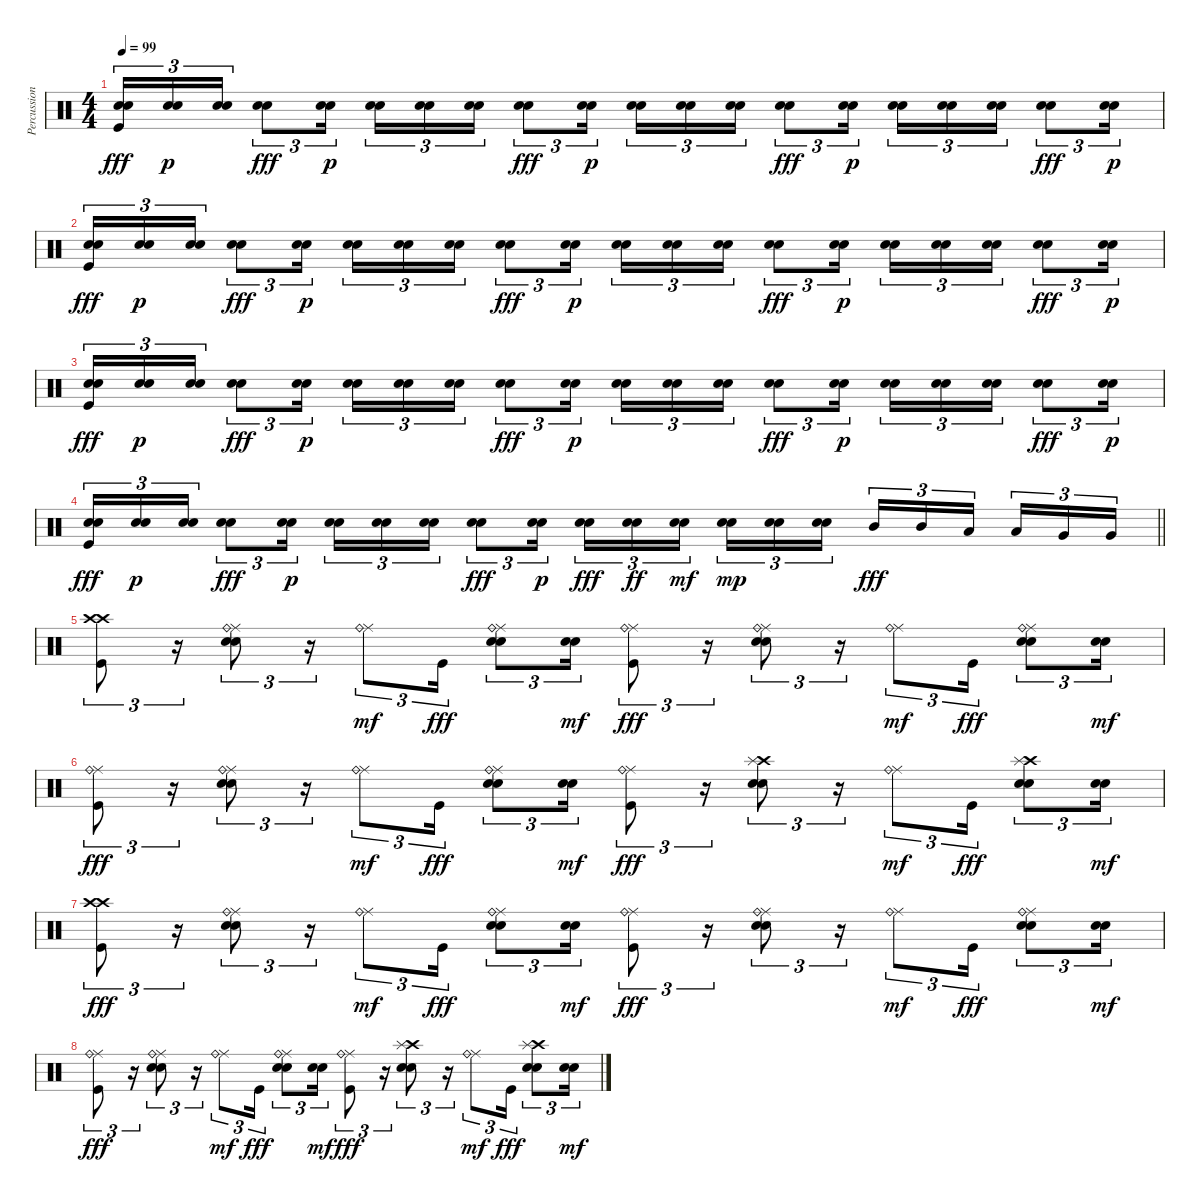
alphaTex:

\track ("Percussion" "Percussion") {instrument percussion}
\staff {score}
\articulation defaults
\ts (4 4)
\tempo 99
\clef neutral
\ks c
("Snare (hit) 2" "Electric Snare (hit)" "Kick (hit)").16{tu (3 2) dy fff} ("Snare (hit) 2" "Electric Snare (hit)").16{tu (3 2) dy p} ("Snare (hit) 2" "Electric Snare (hit)").16{tu (3 2)} ("Snare (hit) 2" "Electric Snare (hit)").8{tu (3 2) dy fff} ("Snare (hit) 2" "Electric Snare (hit)").16{tu (3 2) dy p} ("Snare (hit) 2" "Electric Snare (hit)").16{tu (3 2)} ("Snare (hit) 2" "Electric Snare (hit)").16{tu (3 2)} ("Snare (hit) 2" "Electric Snare (hit)").16{tu (3 2)} ("Snare (hit) 2" "Electric Snare (hit)").8{tu (3 2) dy fff} ("Snare (hit) 2" "Electric Snare (hit)").16{tu (3 2) dy p} ("Snare (hit) 2" "Electric Snare (hit)").16{tu (3 2)} ("Snare (hit) 2" "Electric Snare (hit)").16{tu (3 2)} ("Snare (hit) 2" "Electric Snare (hit)").16{tu (3 2)} ("Snare (hit) 2" "Electric Snare (hit)").8{tu (3 2) dy fff} ("Snare (hit) 2" "Electric Snare (hit)").16{tu (3 2) dy p} ("Snare (hit) 2" "Electric Snare (hit)").16{tu (3 2)} ("Snare (hit) 2" "Electric Snare (hit)").16{tu (3 2)} ("Snare (hit) 2" "Electric Snare (hit)").16{tu (3 2)} ("Snare (hit) 2" "Electric Snare (hit)").8{tu (3 2) dy fff} ("Snare (hit) 2" "Electric Snare (hit)").16{tu (3 2) dy p} |
("Snare (hit) 2" "Electric Snare (hit)" "Kick (hit)").16{tu (3 2) dy fff} ("Snare (hit) 2" "Electric Snare (hit)").16{tu (3 2) dy p} ("Snare (hit) 2" "Electric Snare (hit)").16{tu (3 2)} ("Snare (hit) 2" "Electric Snare (hit)").8{tu (3 2) dy fff} ("Snare (hit) 2" "Electric Snare (hit)").16{tu (3 2) dy p} ("Snare (hit) 2" "Electric Snare (hit)").16{tu (3 2)} ("Snare (hit) 2" "Electric Snare (hit)").16{tu (3 2)} ("Snare (hit) 2" "Electric Snare (hit)").16{tu (3 2)} ("Snare (hit) 2" "Electric Snare (hit)").8{tu (3 2) dy fff} ("Snare (hit) 2" "Electric Snare (hit)").16{tu (3 2) dy p} ("Snare (hit) 2" "Electric Snare (hit)").16{tu (3 2)} ("Snare (hit) 2" "Electric Snare (hit)").16{tu (3 2)} ("Snare (hit) 2" "Electric Snare (hit)").16{tu (3 2)} ("Snare (hit) 2" "Electric Snare (hit)").8{tu (3 2) dy fff} ("Snare (hit) 2" "Electric Snare (hit)").16{tu (3 2) dy p} ("Snare (hit) 2" "Electric Snare (hit)").16{tu (3 2)} ("Snare (hit) 2" "Electric Snare (hit)").16{tu (3 2)} ("Snare (hit) 2" "Electric Snare (hit)").16{tu (3 2)} ("Snare (hit) 2" "Electric Snare (hit)").8{tu (3 2) dy fff} ("Snare (hit) 2" "Electric Snare (hit)").16{tu (3 2) dy p} |
("Snare (hit) 2" "Electric Snare (hit)" "Kick (hit)").16{tu (3 2) dy fff} ("Snare (hit) 2" "Electric Snare (hit)").16{tu (3 2) dy p} ("Snare (hit) 2" "Electric Snare (hit)").16{tu (3 2)} ("Snare (hit) 2" "Electric Snare (hit)").8{tu (3 2) dy fff} ("Snare (hit) 2" "Electric Snare (hit)").16{tu (3 2) dy p} ("Snare (hit) 2" "Electric Snare (hit)").16{tu (3 2)} ("Snare (hit) 2" "Electric Snare (hit)").16{tu (3 2)} ("Snare (hit) 2" "Electric Snare (hit)").16{tu (3 2)} ("Snare (hit) 2" "Electric Snare (hit)").8{tu (3 2) dy fff} ("Snare (hit) 2" "Electric Snare (hit)").16{tu (3 2) dy p} ("Snare (hit) 2" "Electric Snare (hit)").16{tu (3 2)} ("Snare (hit) 2" "Electric Snare (hit)").16{tu (3 2)} ("Snare (hit) 2" "Electric Snare (hit)").16{tu (3 2)} ("Snare (hit) 2" "Electric Snare (hit)").8{tu (3 2) dy fff} ("Snare (hit) 2" "Electric Snare (hit)").16{tu (3 2) dy p} ("Snare (hit) 2" "Electric Snare (hit)").16{tu (3 2)} ("Snare (hit) 2" "Electric Snare (hit)").16{tu (3 2)} ("Snare (hit) 2" "Electric Snare (hit)").16{tu (3 2)} ("Snare (hit) 2" "Electric Snare (hit)").8{tu (3 2) dy fff} ("Snare (hit) 2" "Electric Snare (hit)").16{tu (3 2) dy p} |
\barLineRight lightlight
("Snare (hit) 2" "Electric Snare (hit)" "Kick (hit)").16{tu (3 2) dy fff} ("Snare (hit) 2" "Electric Snare (hit)").16{tu (3 2) dy p} ("Snare (hit) 2" "Electric Snare (hit)").16{tu (3 2)} ("Snare (hit) 2" "Electric Snare (hit)").8{tu (3 2) dy fff} ("Snare (hit) 2" "Electric Snare (hit)").16{tu (3 2) dy p} ("Snare (hit) 2" "Electric Snare (hit)").16{tu (3 2)} ("Snare (hit) 2" "Electric Snare (hit)").16{tu (3 2)} ("Snare (hit) 2" "Electric Snare (hit)").16{tu (3 2)} ("Snare (hit) 2" "Electric Snare (hit)").8{tu (3 2) dy fff} ("Snare (hit) 2" "Electric Snare (hit)").16{tu (3 2) dy p} ("Snare (hit) 2" "Electric Snare (hit)").16{tu (3 2) dy fff} ("Snare (hit) 2" "Electric Snare (hit)").16{tu (3 2) dy ff} ("Snare (hit) 2" "Electric Snare (hit)").16{tu (3 2) dy mf beam splitsecondary} ("Snare (hit) 2" "Electric Snare (hit)").16{tu (3 2) dy mp} ("Snare (hit) 2" "Electric Snare (hit)").16{tu (3 2)} ("Snare (hit) 2" "Electric Snare (hit)").16{tu (3 2)} "Mid Tom (hit)".16{tu (3 2) dy fff} "Mid Tom (hit)".16{tu (3 2)} "Low Tom (hit)".16{tu (3 2) beam splitsecondary} "Low Tom (hit)".16{tu (3 2)} "Very Low Tom (hit)".16{tu (3 2)} "Very Low Tom (hit)".16{tu (3 2)} |
("Crash high (hit)" "Crash high (hit)" "Kick (hit)").8{tu (3 2)} r.16{tu (3 2)} ("Ride (middle)" "Ride (bell)" "Snare (hit) 2" "Electric Snare (hit)").8{tu (3 2)} r.16{tu (3 2)} ("Ride (middle)" "Ride (bell)").8{tu (3 2) dy mf} "Kick (hit)".16{tu (3 2) dy fff} ("Ride (middle)" "Ride (bell)" "Snare (hit) 2" "Electric Snare (hit)").8{tu (3 2)} ("Snare (hit) 2" "Electric Snare (hit)").16{tu (3 2) dy mf} ("Ride (middle)" "Ride (bell)" "Kick (hit)").8{tu (3 2) dy fff} r.16{tu (3 2)} ("Ride (middle)" "Ride (bell)" "Snare (hit) 2" "Electric Snare (hit)").8{tu (3 2)} r.16{tu (3 2)} ("Ride (middle)" "Ride (bell)").8{tu (3 2) dy mf} "Kick (hit)".16{tu (3 2) dy fff} ("Ride (middle)" "Ride (bell)" "Snare (hit) 2" "Electric Snare (hit)").8{tu (3 2)} ("Snare (hit) 2" "Electric Snare (hit)").16{tu (3 2) dy mf} |
("Ride (middle)" "Ride (bell)" "Kick (hit)").8{tu (3 2) dy fff} r.16{tu (3 2)} ("Ride (middle)" "Ride (bell)" "Snare (hit) 2" "Electric Snare (hit)").8{tu (3 2)} r.16{tu (3 2)} ("Ride (middle)" "Ride (bell)").8{tu (3 2) dy mf} "Kick (hit)".16{tu (3 2) dy fff} ("Ride (middle)" "Ride (bell)" "Snare (hit) 2" "Electric Snare (hit)").8{tu (3 2)} ("Snare (hit) 2" "Electric Snare (hit)").16{tu (3 2) dy mf} ("Ride (middle)" "Ride (bell)" "Kick (hit)").8{tu (3 2) dy fff} r.16{tu (3 2)} ("Crash high (hit)" "Splash (hit)" "Snare (hit) 2" "Electric Snare (hit)").8{tu (3 2)} r.16{tu (3 2)} ("Ride (middle)" "Ride (bell)").8{tu (3 2) dy mf} "Kick (hit)".16{tu (3 2) dy fff} ("Crash high (hit)" "Splash (hit)" "Snare (hit) 2" "Electric Snare (hit)").8{tu (3 2)} ("Snare (hit) 2" "Electric Snare (hit)").16{tu (3 2) dy mf} |
("Crash high (hit)" "Crash high (hit)" "Kick (hit)").8{tu (3 2) dy fff} r.16{tu (3 2)} ("Ride (middle)" "Ride (bell)" "Snare (hit) 2" "Electric Snare (hit)").8{tu (3 2)} r.16{tu (3 2)} ("Ride (middle)" "Ride (bell)").8{tu (3 2) dy mf} "Kick (hit)".16{tu (3 2) dy fff} ("Ride (middle)" "Ride (bell)" "Snare (hit) 2" "Electric Snare (hit)").8{tu (3 2)} ("Snare (hit) 2" "Electric Snare (hit)").16{tu (3 2) dy mf} ("Ride (middle)" "Ride (bell)" "Kick (hit)").8{tu (3 2) dy fff} r.16{tu (3 2)} ("Ride (middle)" "Ride (bell)" "Snare (hit) 2" "Electric Snare (hit)").8{tu (3 2)} r.16{tu (3 2)} ("Ride (middle)" "Ride (bell)").8{tu (3 2) dy mf} "Kick (hit)".16{tu (3 2) dy fff} ("Ride (middle)" "Ride (bell)" "Snare (hit) 2" "Electric Snare (hit)").8{tu (3 2)} ("Snare (hit) 2" "Electric Snare (hit)").16{tu (3 2) dy mf} |
("Ride (middle)" "Ride (bell)" "Kick (hit)").8{tu (3 2) dy fff} r.16{tu (3 2)} ("Ride (middle)" "Ride (bell)" "Snare (hit) 2" "Electric Snare (hit)").8{tu (3 2)} r.16{tu (3 2)} ("Ride (middle)" "Ride (bell)").8{tu (3 2) dy mf} "Kick (hit)".16{tu (3 2) dy fff} ("Ride (middle)" "Ride (bell)" "Snare (hit) 2" "Electric Snare (hit)").8{tu (3 2)} ("Snare (hit) 2" "Electric Snare (hit)").16{tu (3 2) dy mf} ("Ride (middle)" "Ride (bell)" "Kick (hit)").8{tu (3 2) dy fff} r.16{tu (3 2)} ("Crash high (hit)" "Splash (hit)" "Snare (hit) 2" "Electric Snare (hit)").8{tu (3 2)} r.16{tu (3 2)} ("Ride (middle)" "Ride (bell)").8{tu (3 2) dy mf} "Kick (hit)".16{tu (3 2) dy fff} ("Crash high (hit)" "Splash (hit)" "Snare (hit) 2" "Electric Snare (hit)").8{tu (3 2)} ("Snare (hit) 2" "Electric Snare (hit)").16{tu (3 2) dy mf}
